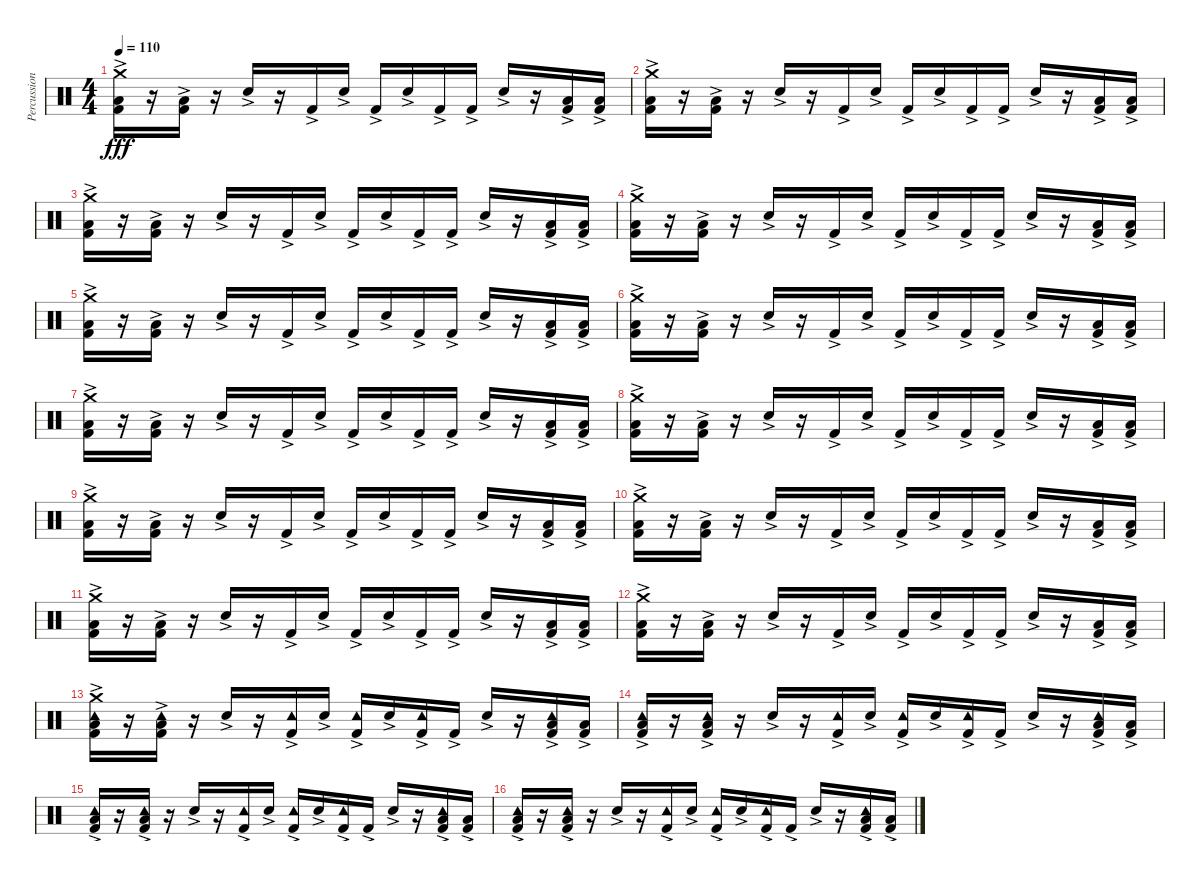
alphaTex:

\track ("Percussion" "Percussion") {instrument percussion}
\staff {score}
\articulation defaults
\ts (4 4)
\tempo 110
\clef neutral
\ks c
("Crash medium (hit)" "Kick (hit) 2"{ac} "Low Floor Tom (hit)").16{dy fff} r.16 ("Kick (hit) 2"{ac} "Low Floor Tom (hit)").16 r.16 "Snare (hit) 2"{ac}.16 r.16 "Kick (hit) 2"{ac}.16 "Snare (hit) 2"{ac}.16 "Kick (hit) 2"{ac}.16 "Snare (hit) 2"{ac}.16 "Kick (hit) 2"{ac}.16 "Kick (hit) 2"{ac}.16 "Snare (hit) 2"{ac}.16 r.16 ("Kick (hit) 2"{ac} "Low Floor Tom (hit)").16 ("Kick (hit) 2"{ac} "Low Floor Tom (hit)").16 |
("Crash medium (hit)" "Kick (hit) 2"{ac} "Low Floor Tom (hit)").16 r.16 ("Kick (hit) 2"{ac} "Low Floor Tom (hit)").16 r.16 "Snare (hit) 2"{ac}.16 r.16 "Kick (hit) 2"{ac}.16 "Snare (hit) 2"{ac}.16 "Kick (hit) 2"{ac}.16 "Snare (hit) 2"{ac}.16 "Kick (hit) 2"{ac}.16 "Kick (hit) 2"{ac}.16 "Snare (hit) 2"{ac}.16 r.16 ("Kick (hit) 2"{ac} "Low Floor Tom (hit)").16 ("Kick (hit) 2"{ac} "Low Floor Tom (hit)").16 |
("Crash medium (hit)" "Kick (hit) 2"{ac} "Low Floor Tom (hit)").16 r.16 ("Kick (hit) 2"{ac} "Low Floor Tom (hit)").16 r.16 "Snare (hit) 2"{ac}.16 r.16 "Kick (hit) 2"{ac}.16 "Snare (hit) 2"{ac}.16 "Kick (hit) 2"{ac}.16 "Snare (hit) 2"{ac}.16 "Kick (hit) 2"{ac}.16 "Kick (hit) 2"{ac}.16 "Snare (hit) 2"{ac}.16 r.16 ("Kick (hit) 2"{ac} "Low Floor Tom (hit)").16 ("Kick (hit) 2"{ac} "Low Floor Tom (hit)").16 |
("Crash medium (hit)" "Kick (hit) 2"{ac} "Low Floor Tom (hit)").16 r.16 ("Kick (hit) 2"{ac} "Low Floor Tom (hit)").16 r.16 "Snare (hit) 2"{ac}.16 r.16 "Kick (hit) 2"{ac}.16 "Snare (hit) 2"{ac}.16 "Kick (hit) 2"{ac}.16 "Snare (hit) 2"{ac}.16 "Kick (hit) 2"{ac}.16 "Kick (hit) 2"{ac}.16 "Snare (hit) 2"{ac}.16 r.16 ("Kick (hit) 2"{ac} "Low Floor Tom (hit)").16 ("Kick (hit) 2"{ac} "Low Floor Tom (hit)").16 |
("Crash medium (hit)" "Kick (hit) 2"{ac} "Low Floor Tom (hit)").16 r.16 ("Kick (hit) 2"{ac} "Low Floor Tom (hit)").16 r.16 "Snare (hit) 2"{ac}.16 r.16 "Kick (hit) 2"{ac}.16 "Snare (hit) 2"{ac}.16 "Kick (hit) 2"{ac}.16 "Snare (hit) 2"{ac}.16 "Kick (hit) 2"{ac}.16 "Kick (hit) 2"{ac}.16 "Snare (hit) 2"{ac}.16 r.16 ("Kick (hit) 2"{ac} "Low Floor Tom (hit)").16 ("Kick (hit) 2"{ac} "Low Floor Tom (hit)").16 |
("Crash medium (hit)" "Kick (hit) 2"{ac} "Low Floor Tom (hit)").16 r.16 ("Kick (hit) 2"{ac} "Low Floor Tom (hit)").16 r.16 "Snare (hit) 2"{ac}.16 r.16 "Kick (hit) 2"{ac}.16 "Snare (hit) 2"{ac}.16 "Kick (hit) 2"{ac}.16 "Snare (hit) 2"{ac}.16 "Kick (hit) 2"{ac}.16 "Kick (hit) 2"{ac}.16 "Snare (hit) 2"{ac}.16 r.16 ("Kick (hit) 2"{ac} "Low Floor Tom (hit)").16 ("Kick (hit) 2"{ac} "Low Floor Tom (hit)").16 |
("Crash medium (hit)" "Kick (hit) 2"{ac} "Low Floor Tom (hit)").16 r.16 ("Kick (hit) 2"{ac} "Low Floor Tom (hit)").16 r.16 "Snare (hit) 2"{ac}.16 r.16 "Kick (hit) 2"{ac}.16 "Snare (hit) 2"{ac}.16 "Kick (hit) 2"{ac}.16 "Snare (hit) 2"{ac}.16 "Kick (hit) 2"{ac}.16 "Kick (hit) 2"{ac}.16 "Snare (hit) 2"{ac}.16 r.16 ("Kick (hit) 2"{ac} "Low Floor Tom (hit)").16 ("Kick (hit) 2"{ac} "Low Floor Tom (hit)").16 |
("Crash medium (hit)" "Kick (hit) 2"{ac} "Low Floor Tom (hit)").16 r.16 ("Kick (hit) 2"{ac} "Low Floor Tom (hit)").16 r.16 "Snare (hit) 2"{ac}.16 r.16 "Kick (hit) 2"{ac}.16 "Snare (hit) 2"{ac}.16 "Kick (hit) 2"{ac}.16 "Snare (hit) 2"{ac}.16 "Kick (hit) 2"{ac}.16 "Kick (hit) 2"{ac}.16 "Snare (hit) 2"{ac}.16 r.16 ("Kick (hit) 2"{ac} "Low Floor Tom (hit)").16 ("Kick (hit) 2"{ac} "Low Floor Tom (hit)").16 |
("Crash medium (hit)" "Kick (hit) 2"{ac} "Low Floor Tom (hit)").16 r.16 ("Kick (hit) 2"{ac} "Low Floor Tom (hit)").16 r.16 "Snare (hit) 2"{ac}.16 r.16 "Kick (hit) 2"{ac}.16 "Snare (hit) 2"{ac}.16 "Kick (hit) 2"{ac}.16 "Snare (hit) 2"{ac}.16 "Kick (hit) 2"{ac}.16 "Kick (hit) 2"{ac}.16 "Snare (hit) 2"{ac}.16 r.16 ("Kick (hit) 2"{ac} "Low Floor Tom (hit)").16 ("Kick (hit) 2"{ac} "Low Floor Tom (hit)").16 |
("Crash medium (hit)" "Kick (hit) 2"{ac} "Low Floor Tom (hit)").16 r.16 ("Kick (hit) 2"{ac} "Low Floor Tom (hit)").16 r.16 "Snare (hit) 2"{ac}.16 r.16 "Kick (hit) 2"{ac}.16 "Snare (hit) 2"{ac}.16 "Kick (hit) 2"{ac}.16 "Snare (hit) 2"{ac}.16 "Kick (hit) 2"{ac}.16 "Kick (hit) 2"{ac}.16 "Snare (hit) 2"{ac}.16 r.16 ("Kick (hit) 2"{ac} "Low Floor Tom (hit)").16 ("Kick (hit) 2"{ac} "Low Floor Tom (hit)").16 |
("Crash medium (hit)" "Kick (hit) 2"{ac} "Low Floor Tom (hit)").16 r.16 ("Kick (hit) 2"{ac} "Low Floor Tom (hit)").16 r.16 "Snare (hit) 2"{ac}.16 r.16 "Kick (hit) 2"{ac}.16 "Snare (hit) 2"{ac}.16 "Kick (hit) 2"{ac}.16 "Snare (hit) 2"{ac}.16 "Kick (hit) 2"{ac}.16 "Kick (hit) 2"{ac}.16 "Snare (hit) 2"{ac}.16 r.16 ("Kick (hit) 2"{ac} "Low Floor Tom (hit)").16 ("Kick (hit) 2"{ac} "Low Floor Tom (hit)").16 |
("Crash medium (hit)" "Kick (hit) 2"{ac} "Low Floor Tom (hit)").16 r.16 ("Kick (hit) 2"{ac} "Low Floor Tom (hit)").16 r.16 "Snare (hit) 2"{ac}.16 r.16 "Kick (hit) 2"{ac}.16 "Snare (hit) 2"{ac}.16 "Kick (hit) 2"{ac}.16 "Snare (hit) 2"{ac}.16 "Kick (hit) 2"{ac}.16 "Kick (hit) 2"{ac}.16 "Snare (hit) 2"{ac}.16 r.16 ("Kick (hit) 2"{ac} "Low Floor Tom (hit)").16 ("Kick (hit) 2"{ac} "Low Floor Tom (hit)").16 |
("Crash medium (hit)" "Kick (hit) 2"{ac} "Low Floor Tom (hit)" "Tambourine (hit)"{ac}).16 r.16 ("Kick (hit) 2"{ac} "Low Floor Tom (hit)" "Tambourine (hit)"{ac}).16 r.16 "Snare (hit) 2"{ac}.16 r.16 ("Kick (hit) 2"{ac} "Tambourine (hit)"{ac}).16 "Snare (hit) 2"{ac}.16 ("Kick (hit) 2"{ac} "Tambourine (hit)"{ac}).16 "Snare (hit) 2"{ac}.16 ("Kick (hit) 2"{ac} "Tambourine (hit)"{ac}).16 "Kick (hit) 2"{ac}.16 "Snare (hit) 2"{ac}.16 r.16 ("Kick (hit) 2"{ac} "Low Floor Tom (hit)" "Tambourine (hit)"{ac}).16 ("Kick (hit) 2"{ac} "Low Floor Tom (hit)").16 |
("Kick (hit) 2"{ac} "Low Floor Tom (hit)" "Tambourine (hit)"{ac}).16 r.16 ("Kick (hit) 2"{ac} "Low Floor Tom (hit)" "Tambourine (hit)"{ac}).16 r.16 "Snare (hit) 2"{ac}.16 r.16 ("Kick (hit) 2"{ac} "Tambourine (hit)"{ac}).16 "Snare (hit) 2"{ac}.16 ("Kick (hit) 2"{ac} "Tambourine (hit)"{ac}).16 "Snare (hit) 2"{ac}.16 ("Kick (hit) 2"{ac} "Tambourine (hit)"{ac}).16 "Kick (hit) 2"{ac}.16 "Snare (hit) 2"{ac}.16 r.16 ("Kick (hit) 2"{ac} "Low Floor Tom (hit)" "Tambourine (hit)"{ac}).16 ("Kick (hit) 2"{ac} "Low Floor Tom (hit)").16 |
("Kick (hit) 2"{ac} "Low Floor Tom (hit)" "Tambourine (hit)"{ac}).16 r.16 ("Kick (hit) 2"{ac} "Low Floor Tom (hit)" "Tambourine (hit)"{ac}).16 r.16 "Snare (hit) 2"{ac}.16 r.16 ("Kick (hit) 2"{ac} "Tambourine (hit)"{ac}).16 "Snare (hit) 2"{ac}.16 ("Kick (hit) 2"{ac} "Tambourine (hit)"{ac}).16 "Snare (hit) 2"{ac}.16 ("Kick (hit) 2"{ac} "Tambourine (hit)"{ac}).16 "Kick (hit) 2"{ac}.16 "Snare (hit) 2"{ac}.16 r.16 ("Kick (hit) 2"{ac} "Low Floor Tom (hit)" "Tambourine (hit)"{ac}).16 ("Kick (hit) 2"{ac} "Low Floor Tom (hit)").16 |
("Kick (hit) 2"{ac} "Low Floor Tom (hit)" "Tambourine (hit)"{ac}).16 r.16 ("Kick (hit) 2"{ac} "Low Floor Tom (hit)" "Tambourine (hit)"{ac}).16 r.16 "Snare (hit) 2"{ac}.16 r.16 ("Kick (hit) 2"{ac} "Tambourine (hit)"{ac}).16 "Snare (hit) 2"{ac}.16 ("Kick (hit) 2"{ac} "Tambourine (hit)"{ac}).16 "Snare (hit) 2"{ac}.16 ("Kick (hit) 2"{ac} "Tambourine (hit)"{ac}).16 "Kick (hit) 2"{ac}.16 "Snare (hit) 2"{ac}.16 r.16 ("Kick (hit) 2"{ac} "Low Floor Tom (hit)" "Tambourine (hit)"{ac}).16 ("Kick (hit) 2"{ac} "Low Floor Tom (hit)").16
